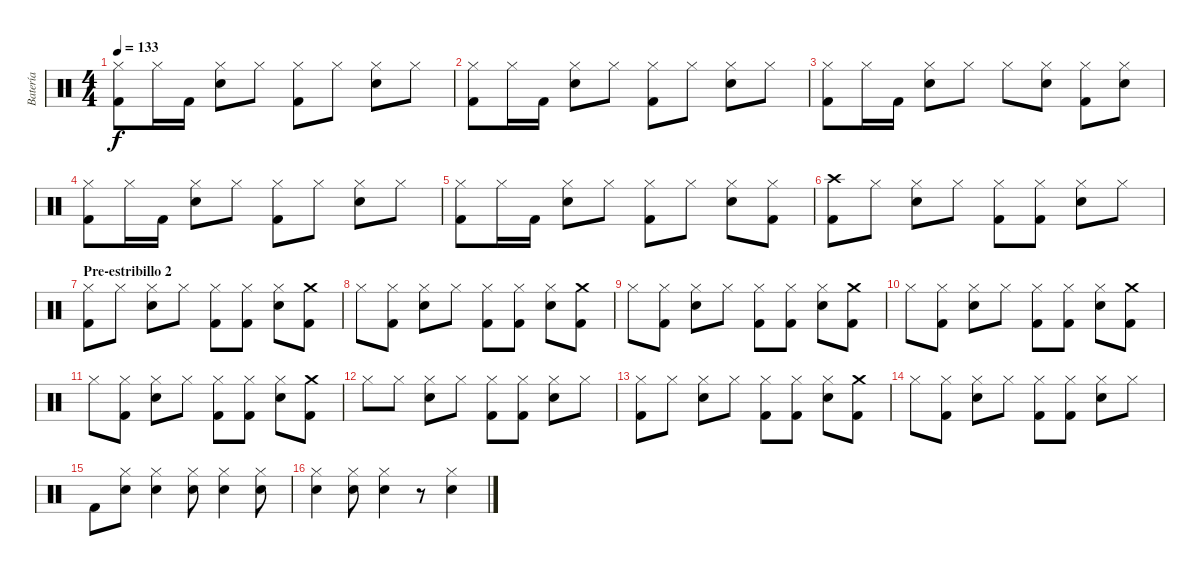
\track ("Batería" "Batería") {instrument percussion}
\staff {score}
\articulation defaults
\ts (4 4)
\tempo 133
\clef neutral
\ks c
("Hi-Hat (closed)" "Kick (hit) 2").8{dy f} "Hi-Hat (closed)".16 "Kick (hit) 2".16 ("Hi-Hat (closed)" "Snare (hit) 2").8 "Hi-Hat (closed)".8 ("Hi-Hat (closed)" "Kick (hit) 2").8 "Hi-Hat (closed)".8 ("Hi-Hat (closed)" "Snare (hit) 2").8 "Hi-Hat (closed)".8 |
("Hi-Hat (closed)" "Kick (hit) 2").8 "Hi-Hat (closed)".16 "Kick (hit) 2".16 ("Hi-Hat (closed)" "Snare (hit) 2").8 "Hi-Hat (closed)".8 ("Hi-Hat (closed)" "Kick (hit) 2").8 "Hi-Hat (closed)".8 ("Hi-Hat (closed)" "Snare (hit) 2").8 "Hi-Hat (closed)".8 |
("Hi-Hat (closed)" "Kick (hit) 2").8 "Hi-Hat (closed)".16 "Kick (hit) 2".16 ("Hi-Hat (closed)" "Snare (hit) 2").8 "Hi-Hat (closed)".8 "Hi-Hat (closed)".8 ("Hi-Hat (closed)" "Snare (hit) 2").8 ("Hi-Hat (closed)" "Kick (hit) 2").8 ("Hi-Hat (closed)" "Snare (hit) 2").8 |
("Hi-Hat (closed)" "Kick (hit) 2").8 "Hi-Hat (closed)".16 "Kick (hit) 2".16 ("Hi-Hat (closed)" "Snare (hit) 2").8 "Hi-Hat (closed)".8 ("Hi-Hat (closed)" "Kick (hit) 2").8 "Hi-Hat (closed)".8 ("Hi-Hat (closed)" "Snare (hit) 2").8 "Hi-Hat (closed)".8 |
("Hi-Hat (closed)" "Kick (hit) 2").8 "Hi-Hat (closed)".16 "Kick (hit) 2".16 ("Hi-Hat (closed)" "Snare (hit) 2").8 "Hi-Hat (closed)".8 ("Hi-Hat (closed)" "Kick (hit) 2").8 "Hi-Hat (closed)".8 ("Hi-Hat (closed)" "Snare (hit) 2").8 ("Hi-Hat (closed)" "Kick (hit) 2").8 |
("Crash high (hit)" "Kick (hit) 2").8 "Hi-Hat (closed)".8 ("Hi-Hat (closed)" "Snare (hit) 2").8 "Hi-Hat (closed)".8 ("Hi-Hat (closed)" "Kick (hit) 2").8 ("Hi-Hat (closed)" "Kick (hit) 2").8 ("Hi-Hat (closed)" "Snare (hit) 2").8 "Hi-Hat (closed)".8 |
\section ("" "Pre-estribillo 2")
("Hi-Hat (closed)" "Kick (hit) 2").8 "Hi-Hat (closed)".8 ("Hi-Hat (closed)" "Snare (hit) 2").8 "Hi-Hat (closed)".8 ("Hi-Hat (closed)" "Kick (hit) 2").8 ("Hi-Hat (closed)" "Kick (hit) 2").8 ("Hi-Hat (closed)" "Snare (hit) 2").8 ("Crash medium (hit)" "Kick (hit) 2").8 |
"Hi-Hat (closed)".8 ("Hi-Hat (closed)" "Kick (hit) 2").8 ("Hi-Hat (closed)" "Snare (hit) 2").8 "Hi-Hat (closed)".8 ("Hi-Hat (closed)" "Kick (hit) 2").8 ("Hi-Hat (closed)" "Kick (hit) 2").8 ("Hi-Hat (closed)" "Snare (hit) 2").8 ("Crash medium (hit)" "Kick (hit) 2").8 |
"Hi-Hat (closed)".8 ("Hi-Hat (closed)" "Kick (hit) 2").8 ("Hi-Hat (closed)" "Snare (hit) 2").8 "Hi-Hat (closed)".8 ("Hi-Hat (closed)" "Kick (hit) 2").8 ("Hi-Hat (closed)" "Kick (hit) 2").8 ("Hi-Hat (closed)" "Snare (hit) 2").8 ("Crash medium (hit)" "Kick (hit) 2").8 |
"Hi-Hat (closed)".8 ("Hi-Hat (closed)" "Kick (hit) 2").8 ("Hi-Hat (closed)" "Snare (hit) 2").8 "Hi-Hat (closed)".8 ("Hi-Hat (closed)" "Kick (hit) 2").8 ("Hi-Hat (closed)" "Kick (hit) 2").8 ("Hi-Hat (closed)" "Snare (hit) 2").8 ("Crash medium (hit)" "Kick (hit) 2").8 |
"Hi-Hat (closed)".8 ("Hi-Hat (closed)" "Kick (hit) 2").8 ("Hi-Hat (closed)" "Snare (hit) 2").8 "Hi-Hat (closed)".8 ("Hi-Hat (closed)" "Kick (hit) 2").8 ("Hi-Hat (closed)" "Kick (hit) 2").8 ("Hi-Hat (closed)" "Snare (hit) 2").8 ("Crash medium (hit)" "Kick (hit) 2").8 |
"Hi-Hat (closed)".8 "Hi-Hat (closed)".8 ("Hi-Hat (closed)" "Snare (hit) 2").8 "Hi-Hat (closed)".8 ("Hi-Hat (closed)" "Kick (hit) 2").8 ("Hi-Hat (closed)" "Kick (hit) 2").8 ("Hi-Hat (closed)" "Snare (hit) 2").8 "Hi-Hat (closed)".8 |
("Hi-Hat (closed)" "Kick (hit) 2").8 "Hi-Hat (closed)".8 ("Hi-Hat (closed)" "Snare (hit) 2").8 "Hi-Hat (closed)".8 ("Hi-Hat (closed)" "Kick (hit) 2").8 ("Hi-Hat (closed)" "Kick (hit) 2").8 ("Hi-Hat (closed)" "Snare (hit) 2").8 ("Crash medium (hit)" "Kick (hit) 2").8 |
"Hi-Hat (closed)".8 ("Hi-Hat (closed)" "Kick (hit) 2").8 ("Hi-Hat (closed)" "Snare (hit) 2").8 "Hi-Hat (closed)".8 ("Hi-Hat (closed)" "Kick (hit) 2").8 ("Hi-Hat (closed)" "Kick (hit) 2").8 ("Hi-Hat (closed)" "Snare (hit) 2").8 "Hi-Hat (closed)".8 |
"Kick (hit) 2".8 ("Hi-Hat (closed)" "Snare (hit) 2").8 ("Hi-Hat (closed)" "Snare (hit) 2").4 ("Hi-Hat (closed)" "Snare (hit) 2").8 ("Hi-Hat (closed)" "Snare (hit) 2").4 ("Hi-Hat (closed)" "Snare (hit) 2").8 |
("Hi-Hat (closed)" "Snare (hit) 2").4 ("Hi-Hat (closed)" "Snare (hit) 2").8 ("Hi-Hat (closed)" "Snare (hit) 2").4 r.8 ("Hi-Hat (closed)" "Snare (hit) 2").4
